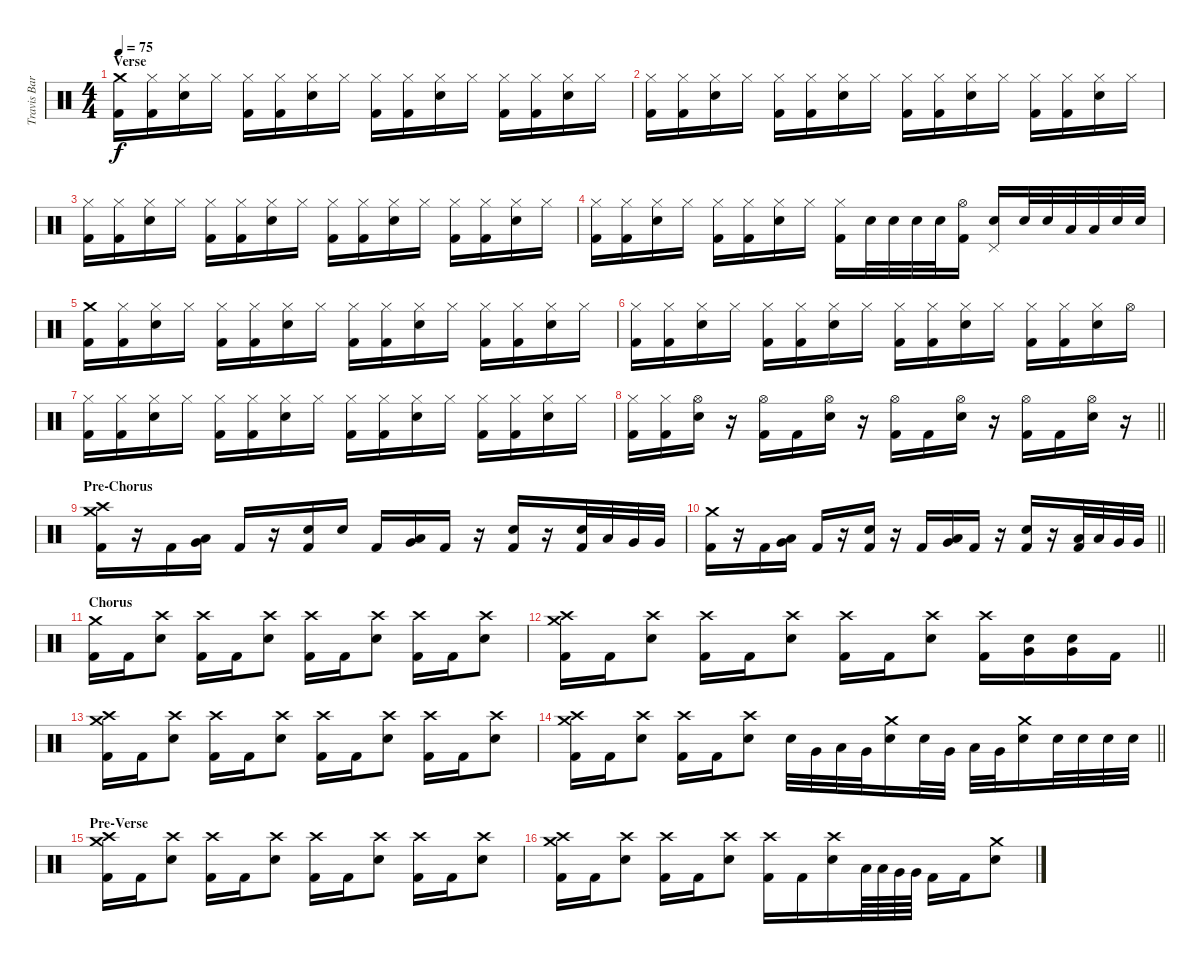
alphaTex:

\track ("Travis Barker" "Travis Bar") {instrument percussion}
\staff {score}
\articulation defaults
\ts (4 4)
\section ("" "Verse")
\tempo 75
\clef neutral
\ks c
("Crash medium (hit)" "Kick (hit) 2").16{dy f} ("Hi-Hat (closed)" "Kick (hit) 2").16 ("Hi-Hat (closed)" "Electric Snare (hit)").16 "Hi-Hat (closed)".16 ("Hi-Hat (closed)" "Kick (hit) 2").16 ("Hi-Hat (closed)" "Kick (hit) 2").16 ("Hi-Hat (closed)" "Electric Snare (hit)").16 "Hi-Hat (closed)".16 ("Hi-Hat (closed)" "Kick (hit) 2").16 ("Hi-Hat (closed)" "Kick (hit) 2").16 ("Hi-Hat (closed)" "Electric Snare (hit)").16 "Hi-Hat (closed)".16 ("Hi-Hat (closed)" "Kick (hit) 2").16 ("Hi-Hat (closed)" "Kick (hit) 2").16 ("Hi-Hat (closed)" "Electric Snare (hit)").16 "Hi-Hat (closed)".16 |
("Hi-Hat (closed)" "Kick (hit) 2").16 ("Hi-Hat (closed)" "Kick (hit) 2").16 ("Hi-Hat (closed)" "Electric Snare (hit)").16 "Hi-Hat (closed)".16 ("Hi-Hat (closed)" "Kick (hit) 2").16 ("Hi-Hat (closed)" "Kick (hit) 2").16 ("Hi-Hat (closed)" "Electric Snare (hit)").16 "Hi-Hat (closed)".16 ("Hi-Hat (closed)" "Kick (hit) 2").16 ("Hi-Hat (closed)" "Kick (hit) 2").16 ("Hi-Hat (closed)" "Electric Snare (hit)").16 "Hi-Hat (closed)".16 ("Hi-Hat (closed)" "Kick (hit) 2").16 ("Hi-Hat (closed)" "Kick (hit) 2").16 ("Hi-Hat (closed)" "Electric Snare (hit)").16 "Hi-Hat (closed)".16 |
("Hi-Hat (closed)" "Kick (hit) 2").16 ("Hi-Hat (closed)" "Kick (hit) 2").16 ("Hi-Hat (closed)" "Electric Snare (hit)").16 "Hi-Hat (closed)".16 ("Hi-Hat (closed)" "Kick (hit) 2").16 ("Hi-Hat (closed)" "Kick (hit) 2").16 ("Hi-Hat (closed)" "Electric Snare (hit)").16 "Hi-Hat (closed)".16 ("Hi-Hat (closed)" "Kick (hit) 2").16 ("Hi-Hat (closed)" "Kick (hit) 2").16 ("Hi-Hat (closed)" "Electric Snare (hit)").16 "Hi-Hat (closed)".16 ("Hi-Hat (closed)" "Kick (hit) 2").16 ("Hi-Hat (closed)" "Kick (hit) 2").16 ("Hi-Hat (closed)" "Electric Snare (hit)").16 "Hi-Hat (closed)".16 |
("Hi-Hat (closed)" "Kick (hit) 2").16 ("Hi-Hat (closed)" "Kick (hit) 2").16 ("Hi-Hat (closed)" "Electric Snare (hit)").16 "Hi-Hat (closed)".16 ("Hi-Hat (closed)" "Kick (hit) 2").16 ("Hi-Hat (closed)" "Kick (hit) 2").16 ("Hi-Hat (closed)" "Electric Snare (hit)").16 "Hi-Hat (closed)".16 ("Hi-Hat (closed)" "Kick (hit) 2").16 "Electric Snare (hit)".32 "Electric Snare (hit)".32 "Electric Snare (hit)".32 "Electric Snare (hit)".32 ("Hi-Hat (open)" "Kick (hit) 2").16 ("Pedal Hi-Hat (hit)" "Electric Snare (hit)").16 "Electric Snare (hit)".32 "Electric Snare (hit)".32 "Low Tom (hit)".32 "Low Tom (hit)".32 "Electric Snare (hit)".32 "Electric Snare (hit)".32 |
("Crash medium (hit)" "Kick (hit) 2").16 ("Hi-Hat (closed)" "Kick (hit) 2").16 ("Hi-Hat (closed)" "Electric Snare (hit)").16 "Hi-Hat (closed)".16 ("Hi-Hat (closed)" "Kick (hit) 2").16 ("Hi-Hat (closed)" "Kick (hit) 2").16 ("Hi-Hat (closed)" "Electric Snare (hit)").16 "Hi-Hat (closed)".16 ("Hi-Hat (closed)" "Kick (hit) 2").16 ("Hi-Hat (closed)" "Kick (hit) 2").16 ("Hi-Hat (closed)" "Electric Snare (hit)").16 "Hi-Hat (closed)".16 ("Hi-Hat (closed)" "Kick (hit) 2").16 ("Hi-Hat (closed)" "Kick (hit) 2").16 ("Hi-Hat (closed)" "Electric Snare (hit)").16 "Hi-Hat (closed)".16 |
("Hi-Hat (closed)" "Kick (hit) 2").16 ("Hi-Hat (closed)" "Kick (hit) 2").16 ("Hi-Hat (closed)" "Electric Snare (hit)").16 "Hi-Hat (closed)".16 ("Hi-Hat (closed)" "Kick (hit) 2").16 ("Hi-Hat (closed)" "Kick (hit) 2").16 ("Hi-Hat (closed)" "Electric Snare (hit)").16 "Hi-Hat (closed)".16 ("Hi-Hat (closed)" "Kick (hit) 2").16 ("Hi-Hat (closed)" "Kick (hit) 2").16 ("Hi-Hat (closed)" "Electric Snare (hit)").16 "Hi-Hat (closed)".16 ("Hi-Hat (closed)" "Kick (hit) 2").16 ("Hi-Hat (closed)" "Kick (hit) 2").16 ("Hi-Hat (closed)" "Electric Snare (hit)").16 "Hi-Hat (open)".16 |
("Hi-Hat (closed)" "Kick (hit) 2").16 ("Hi-Hat (closed)" "Kick (hit) 2").16 ("Hi-Hat (closed)" "Electric Snare (hit)").16 "Hi-Hat (closed)".16 ("Hi-Hat (closed)" "Kick (hit) 2").16 ("Hi-Hat (closed)" "Kick (hit) 2").16 ("Hi-Hat (closed)" "Electric Snare (hit)").16 "Hi-Hat (closed)".16 ("Hi-Hat (closed)" "Kick (hit) 2").16 ("Hi-Hat (closed)" "Kick (hit) 2").16 ("Hi-Hat (closed)" "Electric Snare (hit)").16 "Hi-Hat (closed)".16 ("Hi-Hat (closed)" "Kick (hit) 2").16 ("Hi-Hat (closed)" "Kick (hit) 2").16 ("Hi-Hat (closed)" "Electric Snare (hit)").16 "Hi-Hat (closed)".16 |
\barLineRight lightlight
("Hi-Hat (closed)" "Kick (hit) 2").16 ("Hi-Hat (closed)" "Kick (hit) 2").16 ("Hi-Hat (open)" "Electric Snare (hit)").16 r.16 ("Hi-Hat (open)" "Kick (hit) 2").16 "Kick (hit) 2".16 ("Hi-Hat (open)" "Electric Snare (hit)").16 r.16 ("Hi-Hat (open)" "Kick (hit) 2").16 "Kick (hit) 2".16 ("Hi-Hat (open)" "Electric Snare (hit)").16 r.16 ("Hi-Hat (open)" "Kick (hit) 2").16 "Kick (hit) 2".16 ("Hi-Hat (open)" "Electric Snare (hit)").16 r.16 |
\section ("" "Pre-Chorus")
("Crash medium (hit)" "Crash high (hit)" "Kick (hit) 2").16 r.16 "Kick (hit) 2".16 ("Low Tom (hit)" "Very Low Tom (hit)").16 "Kick (hit) 2".16 r.16 ("Electric Snare (hit)" "Kick (hit) 2").16 "Electric Snare (hit)".16 "Kick (hit) 2".16 ("Low Tom (hit)" "Very Low Tom (hit)").16 "Kick (hit) 2".16 r.16 ("Electric Snare (hit)" "Kick (hit) 2").16 r.16 ("Electric Snare (hit)" "Kick (hit) 2").32 "Low Tom (hit)".32 "Very Low Tom (hit)".32 "Very Low Tom (hit)".32 |
\barLineRight lightlight
("Crash medium (hit)" "Kick (hit) 2").16 r.16 "Kick (hit) 2".16 ("Low Tom (hit)" "Very Low Tom (hit)").16 "Kick (hit) 2".16 r.16 ("Electric Snare (hit)" "Kick (hit) 2").16 r.16 "Kick (hit) 2".16 ("Low Tom (hit)" "Very Low Tom (hit)").16 "Kick (hit) 2".16 r.16 ("Electric Snare (hit)" "Kick (hit) 2").16 r.16 ("Low Tom (hit)" "Kick (hit) 2").32 "Low Tom (hit)".32 "Very Low Tom (hit)".32 "Very Low Tom (hit)".32 |
\section ("" "Chorus")
("Crash medium (hit)" "Kick (hit) 2").16 "Kick (hit) 2".16 ("Crash high (hit)" "Electric Snare (hit)").8 ("Crash high (hit)" "Kick (hit) 2").16 "Kick (hit) 2".16 ("Crash high (hit)" "Electric Snare (hit)").8 ("Crash high (hit)" "Kick (hit) 2").16 "Kick (hit) 2".16 ("Crash high (hit)" "Electric Snare (hit)").8 ("Crash high (hit)" "Kick (hit) 2").16 "Kick (hit) 2".16 ("Crash high (hit)" "Electric Snare (hit)").8 |
\barLineRight lightlight
("Crash medium (hit)" "Crash high (hit)" "Kick (hit) 2").16 "Kick (hit) 2".16 ("Crash high (hit)" "Electric Snare (hit)").8 ("Crash high (hit)" "Kick (hit) 2").16 "Kick (hit) 2".16 ("Crash high (hit)" "Electric Snare (hit)").8 ("Crash high (hit)" "Kick (hit) 2").16 "Kick (hit) 2".16 ("Crash high (hit)" "Electric Snare (hit)").8 ("Crash high (hit)" "Kick (hit) 2").16 ("Electric Snare (hit)" "Very Low Tom (hit)").16 ("Electric Snare (hit)" "Very Low Tom (hit)").16 "Kick (hit) 2".16 |
("Crash medium (hit)" "Crash high (hit)" "Kick (hit) 2").16 "Kick (hit) 2".16 ("Crash high (hit)" "Electric Snare (hit)").8 ("Crash high (hit)" "Kick (hit) 2").16 "Kick (hit) 2".16 ("Crash high (hit)" "Electric Snare (hit)").8 ("Crash high (hit)" "Kick (hit) 2").16 "Kick (hit) 2".16 ("Crash high (hit)" "Electric Snare (hit)").8 ("Crash high (hit)" "Kick (hit) 2").16 "Kick (hit) 2".16 ("Crash high (hit)" "Electric Snare (hit)").8 |
\barLineRight lightlight
("Crash medium (hit)" "Crash high (hit)" "Kick (hit) 2").16 "Kick (hit) 2".16 ("Crash high (hit)" "Electric Snare (hit)").8 ("Crash high (hit)" "Kick (hit) 2").16 "Kick (hit) 2".16 ("Crash high (hit)" "Electric Snare (hit)").8 "Electric Snare (hit)".32 "Very Low Tom (hit)".32 "Low Tom (hit)".32 "Very Low Tom (hit)".32 ("Crash medium (hit)" "Electric Snare (hit)").16 "Electric Snare (hit)".32 "Very Low Tom (hit)".32 "Low Tom (hit)".32 "Very Low Tom (hit)".32 ("Crash medium (hit)" "Electric Snare (hit)").16 "Electric Snare (hit)".32 "Electric Snare (hit)".32 "Electric Snare (hit)".32 "Electric Snare (hit)".32 |
\section ("" "Pre-Verse")
("Crash medium (hit)" "Crash high (hit)" "Kick (hit) 2").16 "Kick (hit) 2".16 ("Crash high (hit)" "Electric Snare (hit)").8 ("Crash high (hit)" "Kick (hit) 2").16 "Kick (hit) 2".16 ("Crash high (hit)" "Electric Snare (hit)").8 ("Crash high (hit)" "Kick (hit) 2").16 "Kick (hit) 2".16 ("Crash high (hit)" "Electric Snare (hit)").8 ("Crash high (hit)" "Kick (hit) 2").16 "Kick (hit) 2".16 ("Crash high (hit)" "Electric Snare (hit)").8 |
("Crash medium (hit)" "Crash high (hit)" "Kick (hit) 2").16 "Kick (hit) 2".16 ("Crash high (hit)" "Electric Snare (hit)").8 ("Crash high (hit)" "Kick (hit) 2").16 "Kick (hit) 2".16 ("Crash high (hit)" "Electric Snare (hit)").8 ("Crash high (hit)" "Kick (hit) 2").16 "Kick (hit) 2".16 ("Crash high (hit)" "Electric Snare (hit)").16 "Low Tom (hit)".64 "Low Tom (hit)".64 "Very Low Tom (hit)".64 "Very Low Tom (hit)".64 "Kick (hit) 2".16 "Kick (hit) 2".16 ("Crash medium (hit)" "Electric Snare (hit)").8
